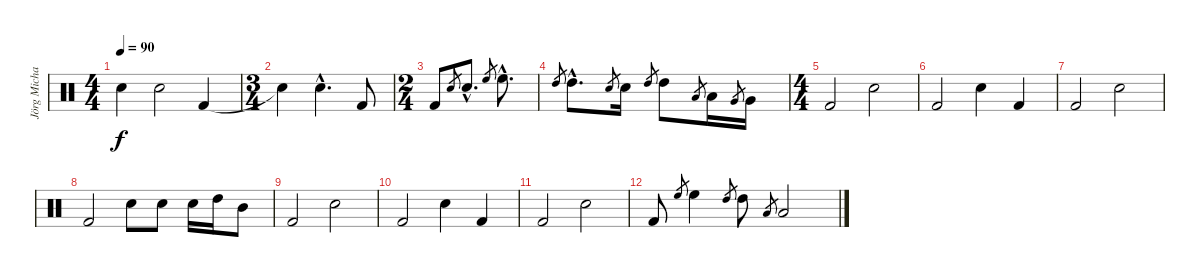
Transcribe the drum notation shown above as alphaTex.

\track ("Jörg Michael Drums" "Jörg Micha") {instrument percussion}
\staff {score}
\articulation defaults
\ts (4 4)
\tempo 90
\clef neutral
\ks c "Snare (hit)"{t}.4{dy f} "Electric Snare (hit)".2 "Kick (hit) 2".4
|
\ts (3 4)
"Electric Snare (hit)"{t}.4 "Electric Snare (hit)"{hac}.4{d} "Kick (hit) 2".8 |
\ts (2 4)
"Kick (hit) 2".8 "Electric Snare (hit)".8{gr} "Electric Snare (hit)"{hac}.8{d} "High Floor Tom (hit)".8{gr} "High Floor Tom (hit)"{hac}.8{d} |
"High Tom (hit)".8{gr} "High Tom (hit)"{hac}.8{d} "Electric Snare (hit)".8{gr} "Electric Snare (hit)".16 "High Tom (hit)".8{gr} "High Tom (hit)".8 "Low Tom (hit)".8{gr} "Low Tom (hit)".16 "Very Low Tom (hit)".8{gr} "Very Low Tom (hit)".16 |
\ts (4 4)
"Kick (hit) 2".2 "Electric Snare (hit)".2 |
"Kick (hit) 2".2 "Electric Snare (hit)".4 "Kick (hit) 2".4 |
"Kick (hit) 2".2 "Electric Snare (hit)".2 |
"Kick (hit) 2".2 "Electric Snare (hit)".8 "Electric Snare (hit)".8 "Electric Snare (hit)".16 "High Tom (hit)".16 "Mid Tom (hit)".8 |
"Kick (hit) 2".2 "Electric Snare (hit)".2 |
"Kick (hit) 2".2 "Electric Snare (hit)".4 "Kick (hit) 2".4 |
"Kick (hit) 2".2 "Electric Snare (hit)".2 |
"Kick (hit) 2".8 "High Floor Tom (hit)".8{gr} "High Floor Tom (hit)".4 "High Tom (hit)".8{gr} "High Tom (hit)".8 "Low Tom (hit)".8{gr} "Low Tom (hit)".2
